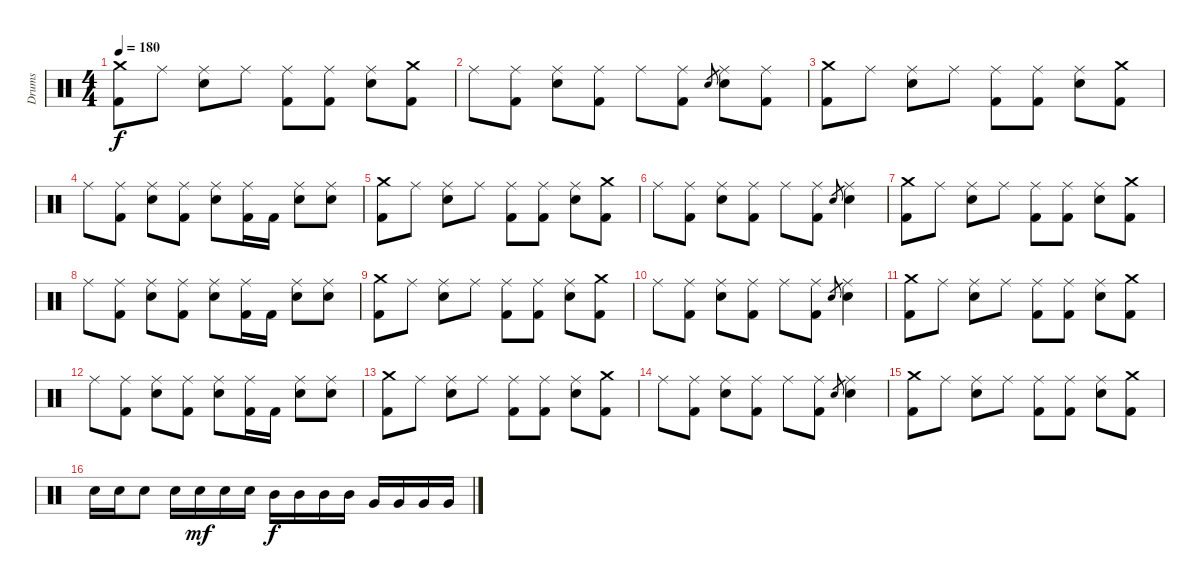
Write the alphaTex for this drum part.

\track ("Drums" "Drums") {instrument percussion}
\staff {score}
\articulation defaults
\ts (4 4)
\tempo 180
\clef neutral
\ks c
("Crash medium (hit)" "Kick (hit) 2").8{dy f} "Ride (middle)".8 ("Ride (middle)" "Electric Snare (hit)").8 "Ride (middle)".8 ("Ride (middle)" "Kick (hit) 2").8 ("Ride (middle)" "Kick (hit) 2").8 ("Ride (middle)" "Electric Snare (hit)").8 ("Crash medium (hit)" "Kick (hit) 2").8 |
"Ride (middle)".8 ("Ride (middle)" "Kick (hit) 2").8 ("Ride (middle)" "Electric Snare (hit)").8 ("Ride (middle)" "Kick (hit) 2").8 "Ride (middle)".8 ("Ride (middle)" "Kick (hit) 2").8 "Electric Snare (hit)".8{gr} ("Ride (middle)" "Electric Snare (hit)").8 ("Ride (middle)" "Kick (hit) 2").8 |
("Crash medium (hit)" "Kick (hit) 2").8 "Ride (middle)".8 ("Ride (middle)" "Electric Snare (hit)").8 "Ride (middle)".8 ("Ride (middle)" "Kick (hit) 2").8 ("Ride (middle)" "Kick (hit) 2").8 ("Ride (middle)" "Electric Snare (hit)").8 ("Crash medium (hit)" "Kick (hit) 2").8 |
"Ride (middle)".8 ("Ride (middle)" "Kick (hit) 2").8 ("Ride (middle)" "Electric Snare (hit)").8 ("Ride (middle)" "Kick (hit) 2").8 ("Ride (middle)" "Electric Snare (hit)").8 ("Ride (middle)" "Kick (hit) 2").16 "Kick (hit) 2".16 ("Ride (middle)" "Electric Snare (hit)").8 ("Ride (middle)" "Electric Snare (hit)").8 |
("Crash medium (hit)" "Kick (hit) 2").8 "Ride (middle)".8 ("Ride (middle)" "Electric Snare (hit)").8 "Ride (middle)".8 ("Ride (middle)" "Kick (hit) 2").8 ("Ride (middle)" "Kick (hit) 2").8 ("Ride (middle)" "Electric Snare (hit)").8 ("Crash medium (hit)" "Kick (hit) 2").8 |
"Ride (middle)".8 ("Ride (middle)" "Kick (hit) 2").8 ("Ride (middle)" "Electric Snare (hit)").8 ("Ride (middle)" "Kick (hit) 2").8 "Ride (middle)".8 ("Ride (middle)" "Kick (hit) 2").8 "Electric Snare (hit)".8{gr} ("Ride (middle)" "Electric Snare (hit)").4 |
("Crash medium (hit)" "Kick (hit) 2").8 "Ride (middle)".8 ("Ride (middle)" "Electric Snare (hit)").8 "Ride (middle)".8 ("Ride (middle)" "Kick (hit) 2").8 ("Ride (middle)" "Kick (hit) 2").8 ("Ride (middle)" "Electric Snare (hit)").8 ("Crash medium (hit)" "Kick (hit) 2").8 |
"Ride (middle)".8 ("Ride (middle)" "Kick (hit) 2").8 ("Ride (middle)" "Electric Snare (hit)").8 ("Ride (middle)" "Kick (hit) 2").8 ("Ride (middle)" "Electric Snare (hit)").8 ("Ride (middle)" "Kick (hit) 2").16 "Kick (hit) 2".16 ("Ride (middle)" "Electric Snare (hit)").8 ("Ride (middle)" "Electric Snare (hit)").8 |
("Crash medium (hit)" "Kick (hit) 2").8 "Ride (middle)".8 ("Ride (middle)" "Electric Snare (hit)").8 "Ride (middle)".8 ("Ride (middle)" "Kick (hit) 2").8 ("Ride (middle)" "Kick (hit) 2").8 ("Ride (middle)" "Electric Snare (hit)").8 ("Crash medium (hit)" "Kick (hit) 2").8 |
"Ride (middle)".8 ("Ride (middle)" "Kick (hit) 2").8 ("Ride (middle)" "Electric Snare (hit)").8 ("Ride (middle)" "Kick (hit) 2").8 "Ride (middle)".8 ("Ride (middle)" "Kick (hit) 2").8 "Electric Snare (hit)".8{gr} ("Ride (middle)" "Electric Snare (hit)").4 |
("Crash medium (hit)" "Kick (hit) 2").8 "Ride (middle)".8 ("Ride (middle)" "Electric Snare (hit)").8 "Ride (middle)".8 ("Ride (middle)" "Kick (hit) 2").8 ("Ride (middle)" "Kick (hit) 2").8 ("Ride (middle)" "Electric Snare (hit)").8 ("Crash medium (hit)" "Kick (hit) 2").8 |
"Ride (middle)".8 ("Ride (middle)" "Kick (hit) 2").8 ("Ride (middle)" "Electric Snare (hit)").8 ("Ride (middle)" "Kick (hit) 2").8 ("Ride (middle)" "Electric Snare (hit)").8 ("Ride (middle)" "Kick (hit) 2").16 "Kick (hit) 2".16 ("Ride (middle)" "Electric Snare (hit)").8 ("Ride (middle)" "Electric Snare (hit)").8 |
("Crash medium (hit)" "Kick (hit) 2").8 "Ride (middle)".8 ("Ride (middle)" "Electric Snare (hit)").8 "Ride (middle)".8 ("Ride (middle)" "Kick (hit) 2").8 ("Ride (middle)" "Kick (hit) 2").8 ("Ride (middle)" "Electric Snare (hit)").8 ("Crash medium (hit)" "Kick (hit) 2").8 |
"Ride (middle)".8 ("Ride (middle)" "Kick (hit) 2").8 ("Ride (middle)" "Electric Snare (hit)").8 ("Ride (middle)" "Kick (hit) 2").8 "Ride (middle)".8 ("Ride (middle)" "Kick (hit) 2").8 "Electric Snare (hit)".8{gr} ("Ride (middle)" "Electric Snare (hit)").4 |
("Crash medium (hit)" "Kick (hit) 2").8 "Ride (middle)".8 ("Ride (middle)" "Electric Snare (hit)").8 "Ride (middle)".8 ("Ride (middle)" "Kick (hit) 2").8 ("Ride (middle)" "Kick (hit) 2").8 ("Ride (middle)" "Electric Snare (hit)").8 ("Crash medium (hit)" "Kick (hit) 2").8 |
"Electric Snare (hit)".16 "Electric Snare (hit)".16 "Electric Snare (hit)".8 "Electric Snare (hit)".16 "Electric Snare (hit)".16{dy mf} "Electric Snare (hit)".16 "Electric Snare (hit)".16 "Mid Tom (hit)".16{dy f} "Mid Tom (hit)".16 "Mid Tom (hit)".16 "Mid Tom (hit)".16 "Very Low Tom (hit)".16 "Very Low Tom (hit)".16 "Very Low Tom (hit)".16 "Very Low Tom (hit)".16
